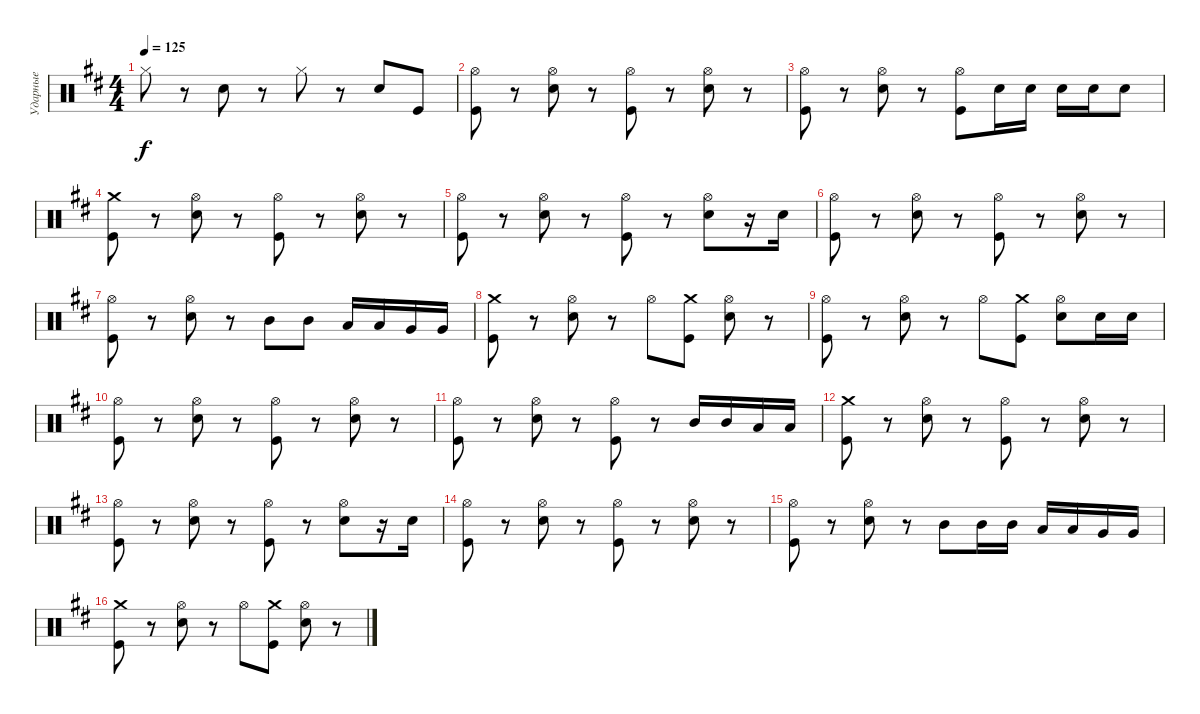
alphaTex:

\track ("Ударные" "Ударные") {instrument percussion}
\staff {score}
\articulation defaults
\ts (4 4)
\tempo 125
\clef neutral
\ks d "Hi-Hat (closed)".8{dy f}
r.8 "Electric Snare (hit)".8 r.8 "Hi-Hat (closed)".8 r.8 "Electric Snare (hit)".8 "Kick (hit)".8 |
("Hi-Hat (open)" "Kick (hit)").8 r.8 ("Hi-Hat (open)" "Electric Snare (hit)").8 r.8 ("Hi-Hat (open)" "Kick (hit)").8 r.8 ("Hi-Hat (open)" "Electric Snare (hit)").8 r.8 |
("Hi-Hat (open)" "Kick (hit)").8 r.8 ("Hi-Hat (open)" "Electric Snare (hit)").8 r.8 ("Hi-Hat (open)" "Kick (hit)").8 "Electric Snare (hit)".16 "Electric Snare (hit)".16 "Electric Snare (hit)".16 "Electric Snare (hit)".16 "Electric Snare (hit)".8 |
("Crash medium (hit)" "Kick (hit)").8 r.8 ("Hi-Hat (open)" "Electric Snare (hit)").8 r.8 ("Hi-Hat (open)" "Kick (hit)").8 r.8 ("Hi-Hat (open)" "Electric Snare (hit)").8 r.8 |
("Hi-Hat (open)" "Kick (hit)").8 r.8 ("Hi-Hat (open)" "Electric Snare (hit)").8 r.8 ("Hi-Hat (open)" "Kick (hit)").8 r.8 ("Hi-Hat (open)" "Electric Snare (hit)").8 r.16 "Electric Snare (hit)".16 |
("Hi-Hat (open)" "Kick (hit)").8 r.8 ("Hi-Hat (open)" "Electric Snare (hit)").8 r.8 ("Hi-Hat (open)" "Kick (hit)").8 r.8 ("Hi-Hat (open)" "Electric Snare (hit)").8 r.8 |
("Hi-Hat (open)" "Kick (hit)").8 r.8 ("Hi-Hat (open)" "Electric Snare (hit)").8 r.8 "Mid Tom (hit)".8 "Mid Tom (hit)".8 "Low Tom (hit)".16 "Low Tom (hit)".16 "Very Low Tom (hit)".16 "Very Low Tom (hit)".16 |
("Crash medium (hit)" "Kick (hit)").8 r.8 ("Hi-Hat (open)" "Electric Snare (hit)").8 r.8 "Hi-Hat (open)".8 ("Crash medium (hit)" "Kick (hit)").8 ("Hi-Hat (open)" "Electric Snare (hit)").8 r.8 |
("Hi-Hat (open)" "Kick (hit)").8 r.8 ("Hi-Hat (open)" "Electric Snare (hit)").8 r.8 "Hi-Hat (open)".8 ("Crash medium (hit)" "Kick (hit)").8 ("Hi-Hat (open)" "Electric Snare (hit)").8 "Electric Snare (hit)".16 "Electric Snare (hit)".16 |
("Hi-Hat (open)" "Kick (hit)").8 r.8 ("Hi-Hat (open)" "Electric Snare (hit)").8 r.8 ("Hi-Hat (open)" "Kick (hit)").8 r.8 ("Hi-Hat (open)" "Electric Snare (hit)").8 r.8 |
("Hi-Hat (open)" "Kick (hit)").8 r.8 ("Hi-Hat (open)" "Electric Snare (hit)").8 r.8 ("Hi-Hat (open)" "Kick (hit)").8 r.8 "Mid Tom (hit)".16 "Mid Tom (hit)".16 "Low Tom (hit)".16 "Low Tom (hit)".16 |
("Crash medium (hit)" "Kick (hit)").8 r.8 ("Hi-Hat (open)" "Electric Snare (hit)").8 r.8 ("Hi-Hat (open)" "Kick (hit)").8 r.8 ("Hi-Hat (open)" "Electric Snare (hit)").8 r.8 |
("Hi-Hat (open)" "Kick (hit)").8 r.8 ("Hi-Hat (open)" "Electric Snare (hit)").8 r.8 ("Hi-Hat (open)" "Kick (hit)").8 r.8 ("Hi-Hat (open)" "Electric Snare (hit)").8 r.16 "Electric Snare (hit)".16 |
("Hi-Hat (open)" "Kick (hit)").8 r.8 ("Hi-Hat (open)" "Electric Snare (hit)").8 r.8 ("Hi-Hat (open)" "Kick (hit)").8 r.8 ("Hi-Hat (open)" "Electric Snare (hit)").8 r.8 |
("Hi-Hat (open)" "Kick (hit)").8 r.8 ("Hi-Hat (open)" "Electric Snare (hit)").8 r.8 "Mid Tom (hit)".8 "Mid Tom (hit)".16 "Mid Tom (hit)".16 "Low Tom (hit)".16 "Low Tom (hit)".16 "Very Low Tom (hit)".16 "Very Low Tom (hit)".16 |
("Crash medium (hit)" "Kick (hit)").8 r.8 ("Hi-Hat (open)" "Electric Snare (hit)").8 r.8 "Hi-Hat (open)".8 ("Crash medium (hit)" "Kick (hit)").8 ("Hi-Hat (open)" "Electric Snare (hit)").8 r.8
